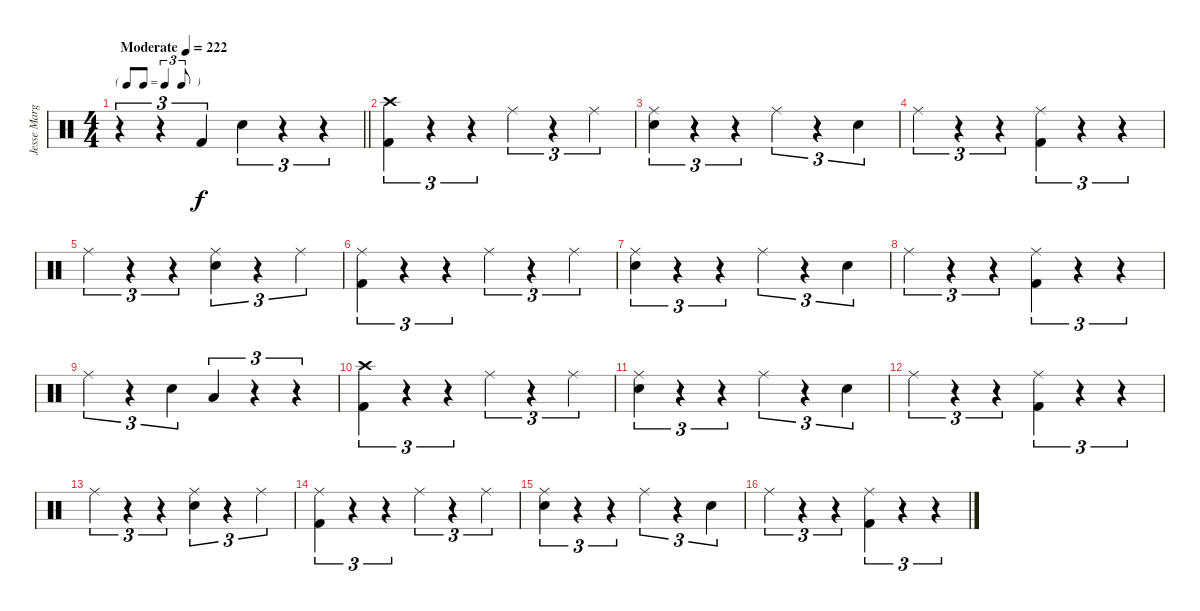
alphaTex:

\track ("Jesse Margera" "Jesse Marg") {instrument percussion}
\staff {score}
\articulation defaults
\ts (4 4)
\tf triplet8th
\tempo (222 "Moderate")
\clef neutral
\barLineRight lightlight
\ks c
r.4{tu (3 2) dy f} r.4{tu (3 2)} "Kick (hit) 2".4{tu (3 2)} "Electric Snare (hit)".4{tu (3 2)} r.4{tu (3 2)} r.4{tu (3 2)} |
\section ("" "")
("Crash high (hit)" "Kick (hit) 2").4{tu (3 2)} r.4{tu (3 2)} r.4{tu (3 2)} "Ride (middle)".4{tu (3 2)} r.4{tu (3 2)} "Ride (middle)".4{tu (3 2)} |
("Ride (middle)" "Electric Snare (hit)").4{tu (3 2)} r.4{tu (3 2)} r.4{tu (3 2)} "Ride (middle)".4{tu (3 2)} r.4{tu (3 2)} "Electric Snare (hit)".4{tu (3 2)} |
"Ride (middle)".4{tu (3 2)} r.4{tu (3 2)} r.4{tu (3 2)} ("Ride (middle)" "Kick (hit) 2").4{tu (3 2)} r.4{tu (3 2)} r.4{tu (3 2)} |
"Ride (middle)".4{tu (3 2)} r.4{tu (3 2)} r.4{tu (3 2)} ("Ride (middle)" "Electric Snare (hit)").4{tu (3 2)} r.4{tu (3 2)} "Ride (middle)".4{tu (3 2)} |
("Ride (middle)" "Kick (hit) 2").4{tu (3 2)} r.4{tu (3 2)} r.4{tu (3 2)} "Ride (middle)".4{tu (3 2)} r.4{tu (3 2)} "Ride (middle)".4{tu (3 2)} |
("Ride (middle)" "Electric Snare (hit)").4{tu (3 2)} r.4{tu (3 2)} r.4{tu (3 2)} "Ride (middle)".4{tu (3 2)} r.4{tu (3 2)} "Electric Snare (hit)".4{tu (3 2)} |
"Ride (middle)".4{tu (3 2)} r.4{tu (3 2)} r.4{tu (3 2)} ("Ride (middle)" "Kick (hit) 2").4{tu (3 2)} r.4{tu (3 2)} r.4{tu (3 2)} |
"Ride (middle)".4{tu (3 2)} r.4{tu (3 2)} "Electric Snare (hit)".4{tu (3 2)} "Low Floor Tom (hit)".4{tu (3 2)} r.4{tu (3 2)} r.4{tu (3 2)} |
("Crash high (hit)" "Kick (hit) 2").4{tu (3 2)} r.4{tu (3 2)} r.4{tu (3 2)} "Ride (middle)".4{tu (3 2)} r.4{tu (3 2)} "Ride (middle)".4{tu (3 2)} |
("Ride (middle)" "Electric Snare (hit)").4{tu (3 2)} r.4{tu (3 2)} r.4{tu (3 2)} "Ride (middle)".4{tu (3 2)} r.4{tu (3 2)} "Electric Snare (hit)".4{tu (3 2)} |
"Ride (middle)".4{tu (3 2)} r.4{tu (3 2)} r.4{tu (3 2)} ("Ride (middle)" "Kick (hit) 2").4{tu (3 2)} r.4{tu (3 2)} r.4{tu (3 2)} |
"Ride (middle)".4{tu (3 2)} r.4{tu (3 2)} r.4{tu (3 2)} ("Ride (middle)" "Electric Snare (hit)").4{tu (3 2)} r.4{tu (3 2)} "Ride (middle)".4{tu (3 2)} |
("Ride (middle)" "Kick (hit) 2").4{tu (3 2)} r.4{tu (3 2)} r.4{tu (3 2)} "Ride (middle)".4{tu (3 2)} r.4{tu (3 2)} "Ride (middle)".4{tu (3 2)} |
("Ride (middle)" "Electric Snare (hit)").4{tu (3 2)} r.4{tu (3 2)} r.4{tu (3 2)} "Ride (middle)".4{tu (3 2)} r.4{tu (3 2)} "Electric Snare (hit)".4{tu (3 2)} |
"Ride (middle)".4{tu (3 2)} r.4{tu (3 2)} r.4{tu (3 2)} ("Ride (middle)" "Kick (hit) 2").4{tu (3 2)} r.4{tu (3 2)} r.4{tu (3 2)}
